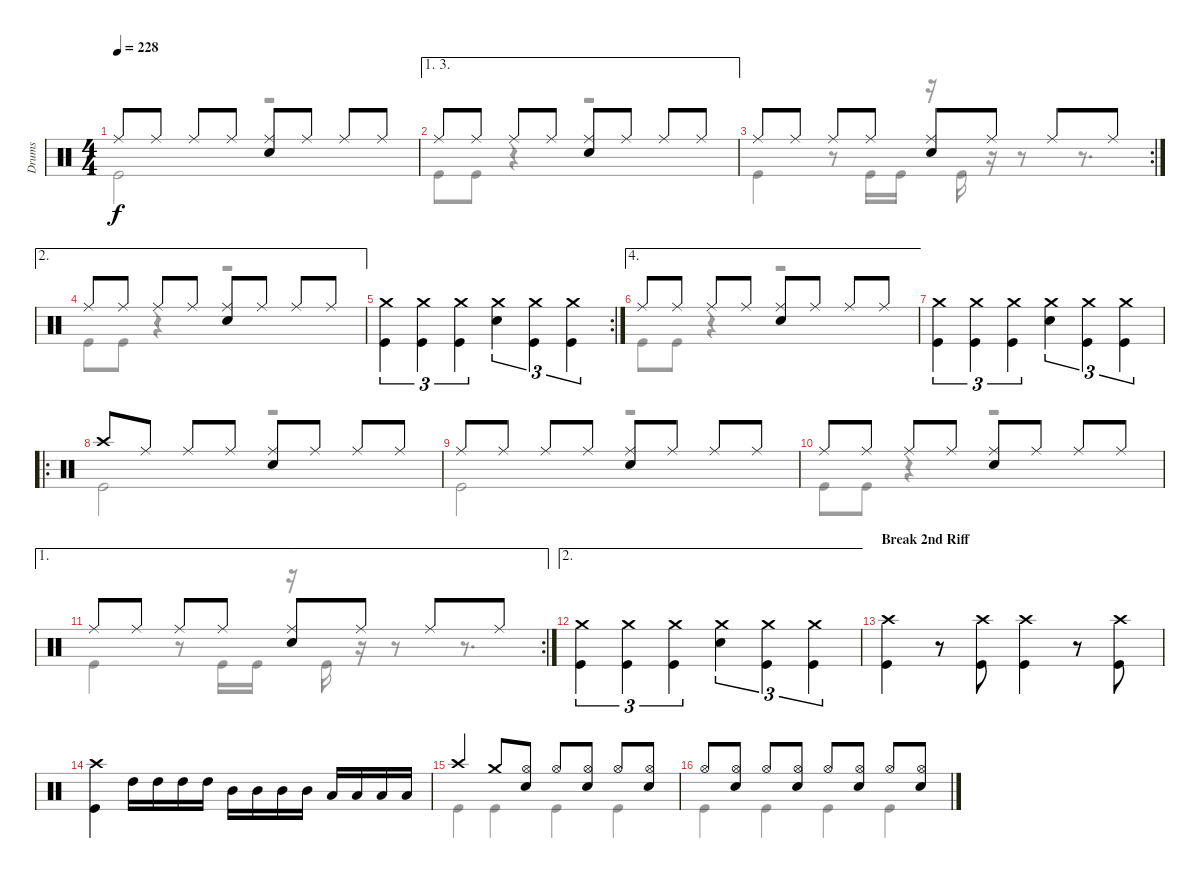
\track ("Drums" "Drums") {instrument percussion}
\staff {score}
\articulation defaults
\voice
\ts (4 4)
\tempo 228
\clef neutral
\ks c "Ride (middle)".8{dy f} "Ride (middle)".8 "Ride (middle)".8 "Ride (middle)".8
("Ride (middle)" "Snare (hit) 2").8 "Ride (middle)".8 "Ride (middle)".8 "Ride (middle)".8 |
\ae (1 3)
"Ride (middle)".8 "Ride (middle)".8 "Ride (middle)".8 "Ride (middle)".8 ("Ride (middle)" "Snare (hit) 2").8 "Ride (middle)".8 "Ride (middle)".8 "Ride (middle)".8 |
\rc 2 "Ride (middle)".8 "Ride (middle)".8 "Ride (middle)".8 "Ride (middle)".8
("Ride (middle)" "Snare (hit) 2").8 "Ride (middle)".8 "Ride (middle)".8 "Ride (middle)".8 |
\ae 2 "Ride (middle)".8 "Ride (middle)".8 "Ride (middle)".8 "Ride (middle)".8
("Ride (middle)" "Snare (hit) 2").8 "Ride (middle)".8 "Ride (middle)".8 "Ride (middle)".8 |
\rc 2
("Crash medium (hit)" "Kick (hit)").4{tu (3 2)} ("Crash medium (hit)" "Kick (hit)").4{tu (3 2)} ("Crash medium (hit)" "Kick (hit)").4{tu (3 2)} ("Crash medium (hit)" "Snare (hit) 2").4{tu (3 2)} ("Crash medium (hit)" "Kick (hit)").4{tu (3 2)} ("Crash medium (hit)" "Kick (hit)").4{tu (3 2)} |
\ae 4 "Ride (middle)".8 "Ride (middle)".8 "Ride (middle)".8 "Ride (middle)".8
("Ride (middle)" "Snare (hit) 2").8 "Ride (middle)".8 "Ride (middle)".8 "Ride (middle)".8 |
("Crash medium (hit)" "Kick (hit)").4{tu (3 2)} ("Crash medium (hit)" "Kick (hit)").4{tu (3 2)} ("Crash medium (hit)" "Kick (hit)").4{tu (3 2)} ("Crash medium (hit)" "Snare (hit) 2").4{tu (3 2)} ("Crash medium (hit)" "Kick (hit)").4{tu (3 2)} ("Crash medium (hit)" "Kick (hit)").4{tu (3 2)} |
\ro "Crash high (hit)".8 "Ride (middle)".8 "Ride (middle)".8 "Ride (middle)".8
("Ride (middle)" "Snare (hit) 2").8 "Ride (middle)".8 "Ride (middle)".8 "Ride (middle)".8 |
"Ride (middle)".8 "Ride (middle)".8 "Ride (middle)".8 "Ride (middle)".8 ("Ride (middle)" "Snare (hit) 2").8 "Ride (middle)".8 "Ride (middle)".8 "Ride (middle)".8 |
"Ride (middle)".8 "Ride (middle)".8 "Ride (middle)".8 "Ride (middle)".8 ("Ride (middle)" "Snare (hit) 2").8 "Ride (middle)".8 "Ride (middle)".8 "Ride (middle)".8 |
\ae 1
\rc 2 "Ride (middle)".8 "Ride (middle)".8 "Ride (middle)".8 "Ride (middle)".8
("Ride (middle)" "Snare (hit) 2").8 "Ride (middle)".8 "Ride (middle)".8 "Ride (middle)".8 |
\ae 2
("Crash medium (hit)" "Kick (hit)").4{tu (3 2)} ("Crash medium (hit)" "Kick (hit)").4{tu (3 2)} ("Crash medium (hit)" "Kick (hit)").4{tu (3 2)} ("Crash medium (hit)" "Snare (hit) 2").4{tu (3 2)} ("Crash medium (hit)" "Kick (hit)").4{tu (3 2)} ("Crash medium (hit)" "Kick (hit)").4{tu (3 2)} |
\section ("" "Break 2nd Riff")
("Crash high (hit)" "Kick (hit)").4 r.8 ("Crash high (hit)" "Kick (hit)").8 ("Crash high (hit)" "Kick (hit)").4 r.8 ("Crash high (hit)" "Kick (hit)").8 |
("Crash high (hit)" "Kick (hit)").4 "High Tom (hit)".16 "High Tom (hit)".16 "High Tom (hit)".16 "High Tom (hit)".16 "Mid Tom (hit)".16 "Mid Tom (hit)".16 "Mid Tom (hit)".16 "Mid Tom (hit)".16 "Low Floor Tom (hit)".16 "Low Floor Tom (hit)".16 "Low Floor Tom (hit)".16 "Low Floor Tom (hit)".16 |
"Crash high (hit)".4 "Crash medium (hit)".8 ("Hi-Hat (open)" "Snare (hit) 2").8 "Hi-Hat (open)".8 ("Hi-Hat (open)" "Snare (hit) 2").8 "Hi-Hat (open)".8 ("Hi-Hat (open)" "Snare (hit) 2").8 |
"Hi-Hat (open)".8 ("Hi-Hat (open)" "Snare (hit) 2").8 "Hi-Hat (open)".8 ("Hi-Hat (open)" "Snare (hit) 2").8 "Hi-Hat (open)".8 ("Hi-Hat (open)" "Snare (hit) 2").8 "Hi-Hat (open)".8 ("Hi-Hat (open)" "Snare (hit) 2").8
\voice
\clef neutral
\ottava regular
\simile none
\ks c "Kick (hit)".2{dy f}
r.2 |
"Kick (hit)".8 "Kick (hit)".8 r.4 r.2 |
"Kick (hit)".4 r.8 "Kick (hit)".16 "Kick (hit)".16 r.16 "Kick (hit)".16 r.16 r.8 r.8{d} |
"Kick (hit)".8 "Kick (hit)".8 r.4 r.2 |
|
"Kick (hit)".8 "Kick (hit)".8 r.4 r.2 |
|
"Kick (hit)".2 r.2 |
"Kick (hit)".2 r.2 |
"Kick (hit)".8 "Kick (hit)".8 r.4 r.2 |
"Kick (hit)".4 r.8 "Kick (hit)".16 "Kick (hit)".16 r.16 "Kick (hit)".16 r.16 r.8 r.8{d} |
|
|
|
"Kick (hit)".4 "Kick (hit)".4 "Kick (hit)".4 "Kick (hit)".4 |
"Kick (hit)".4 "Kick (hit)".4 "Kick (hit)".4 "Kick (hit)".4
